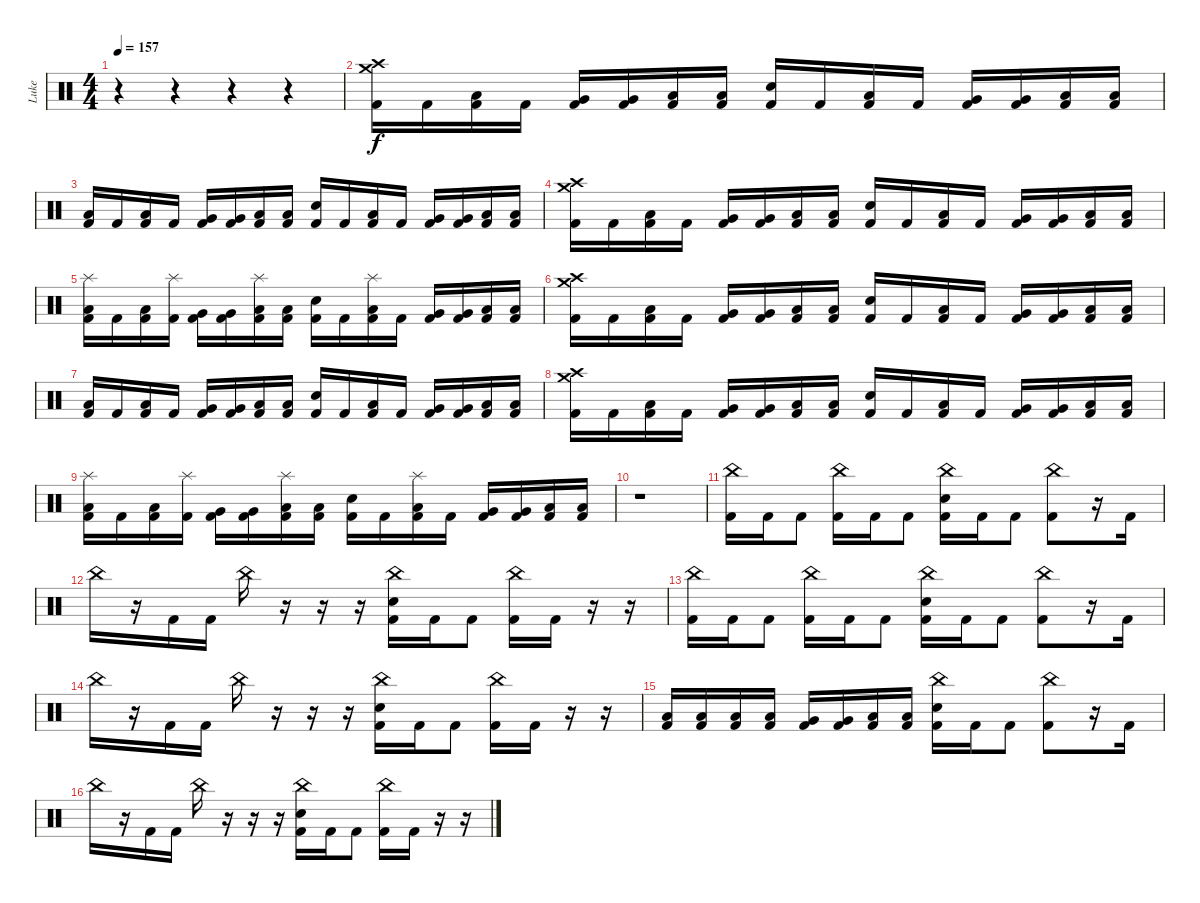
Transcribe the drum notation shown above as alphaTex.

\track ("Luke" "Luke") {instrument percussion}
\staff {score}
\articulation defaults
\ts (4 4)
\tempo 157
\clef neutral
\ks c
r.4{dy f} r.4 r.4 r.4 |
("Crash medium (hit)" "Crash high (hit)" "Kick (hit) 2").16 "Kick (hit) 2".16 ("Low Tom (hit)" "Kick (hit) 2").16 "Kick (hit) 2".16 ("Very Low Tom (hit)" "Kick (hit) 2").16 ("Very Low Tom (hit)" "Kick (hit) 2").16 ("Low Floor Tom (hit)" "Kick (hit) 2").16 ("Low Floor Tom (hit)" "Kick (hit) 2").16 ("Electric Snare (hit)" "Kick (hit) 2").16 "Kick (hit) 2".16 ("Low Tom (hit)" "Kick (hit) 2").16 "Kick (hit) 2".16 ("Very Low Tom (hit)" "Kick (hit) 2").16 ("Very Low Tom (hit)" "Kick (hit) 2").16 ("Low Floor Tom (hit)" "Kick (hit) 2").16 ("Low Floor Tom (hit)" "Kick (hit) 2").16 |
("Low Floor Tom (hit)" "Kick (hit) 2").16 "Kick (hit) 2".16 ("Low Tom (hit)" "Kick (hit) 2").16 "Kick (hit) 2".16 ("Very Low Tom (hit)" "Kick (hit) 2").16 ("Very Low Tom (hit)" "Kick (hit) 2").16 ("Low Floor Tom (hit)" "Kick (hit) 2").16 ("Low Floor Tom (hit)" "Kick (hit) 2").16 ("Electric Snare (hit)" "Kick (hit) 2").16 "Kick (hit) 2".16 ("Low Tom (hit)" "Kick (hit) 2").16 "Kick (hit) 2".16 ("Very Low Tom (hit)" "Kick (hit) 2").16 ("Very Low Tom (hit)" "Kick (hit) 2").16 ("Low Floor Tom (hit)" "Kick (hit) 2").16 ("Low Floor Tom (hit)" "Kick (hit) 2").16 |
("Crash medium (hit)" "Crash high (hit)" "Kick (hit) 2").16 "Kick (hit) 2".16 ("Low Tom (hit)" "Kick (hit) 2").16 "Kick (hit) 2".16 ("Very Low Tom (hit)" "Kick (hit) 2").16 ("Very Low Tom (hit)" "Kick (hit) 2").16 ("Low Floor Tom (hit)" "Kick (hit) 2").16 ("Low Floor Tom (hit)" "Kick (hit) 2").16 ("Electric Snare (hit)" "Kick (hit) 2").16 "Kick (hit) 2".16 ("Low Tom (hit)" "Kick (hit) 2").16 "Kick (hit) 2".16 ("Very Low Tom (hit)" "Kick (hit) 2").16 ("Very Low Tom (hit)" "Kick (hit) 2").16 ("Low Floor Tom (hit)" "Kick (hit) 2").16 ("Low Floor Tom (hit)" "Kick (hit) 2").16 |
("Splash (hit)" "Low Floor Tom (hit)" "Kick (hit) 2").16 "Kick (hit) 2".16 ("Low Tom (hit)" "Kick (hit) 2").16 ("Splash (hit)" "Kick (hit) 2").16 ("Very Low Tom (hit)" "Kick (hit) 2").16 ("Very Low Tom (hit)" "Kick (hit) 2").16 ("Splash (hit)" "Low Floor Tom (hit)" "Kick (hit) 2").16 ("Low Floor Tom (hit)" "Kick (hit) 2").16 ("Electric Snare (hit)" "Kick (hit) 2").16 "Kick (hit) 2".16 ("Splash (hit)" "Low Tom (hit)" "Kick (hit) 2").16 "Kick (hit) 2".16 ("Very Low Tom (hit)" "Kick (hit) 2").16 ("Very Low Tom (hit)" "Kick (hit) 2").16 ("Low Floor Tom (hit)" "Kick (hit) 2").16 ("Low Floor Tom (hit)" "Kick (hit) 2").16 |
("Crash medium (hit)" "Crash high (hit)" "Kick (hit) 2").16 "Kick (hit) 2".16 ("Low Tom (hit)" "Kick (hit) 2").16 "Kick (hit) 2".16 ("Very Low Tom (hit)" "Kick (hit) 2").16 ("Very Low Tom (hit)" "Kick (hit) 2").16 ("Low Floor Tom (hit)" "Kick (hit) 2").16 ("Low Floor Tom (hit)" "Kick (hit) 2").16 ("Electric Snare (hit)" "Kick (hit) 2").16 "Kick (hit) 2".16 ("Low Tom (hit)" "Kick (hit) 2").16 "Kick (hit) 2".16 ("Very Low Tom (hit)" "Kick (hit) 2").16 ("Very Low Tom (hit)" "Kick (hit) 2").16 ("Low Floor Tom (hit)" "Kick (hit) 2").16 ("Low Floor Tom (hit)" "Kick (hit) 2").16 |
("Low Floor Tom (hit)" "Kick (hit) 2").16 "Kick (hit) 2".16 ("Low Tom (hit)" "Kick (hit) 2").16 "Kick (hit) 2".16 ("Very Low Tom (hit)" "Kick (hit) 2").16 ("Very Low Tom (hit)" "Kick (hit) 2").16 ("Low Floor Tom (hit)" "Kick (hit) 2").16 ("Low Floor Tom (hit)" "Kick (hit) 2").16 ("Electric Snare (hit)" "Kick (hit) 2").16 "Kick (hit) 2".16 ("Low Tom (hit)" "Kick (hit) 2").16 "Kick (hit) 2".16 ("Very Low Tom (hit)" "Kick (hit) 2").16 ("Very Low Tom (hit)" "Kick (hit) 2").16 ("Low Floor Tom (hit)" "Kick (hit) 2").16 ("Low Floor Tom (hit)" "Kick (hit) 2").16 |
("Crash medium (hit)" "Crash high (hit)" "Kick (hit) 2").16 "Kick (hit) 2".16 ("Low Tom (hit)" "Kick (hit) 2").16 "Kick (hit) 2".16 ("Very Low Tom (hit)" "Kick (hit) 2").16 ("Very Low Tom (hit)" "Kick (hit) 2").16 ("Low Floor Tom (hit)" "Kick (hit) 2").16 ("Low Floor Tom (hit)" "Kick (hit) 2").16 ("Electric Snare (hit)" "Kick (hit) 2").16 "Kick (hit) 2".16 ("Low Tom (hit)" "Kick (hit) 2").16 "Kick (hit) 2".16 ("Very Low Tom (hit)" "Kick (hit) 2").16 ("Very Low Tom (hit)" "Kick (hit) 2").16 ("Low Floor Tom (hit)" "Kick (hit) 2").16 ("Low Floor Tom (hit)" "Kick (hit) 2").16 |
("Splash (hit)" "Low Floor Tom (hit)" "Kick (hit) 2").16 "Kick (hit) 2".16 ("Low Tom (hit)" "Kick (hit) 2").16 ("Splash (hit)" "Kick (hit) 2").16 ("Very Low Tom (hit)" "Kick (hit) 2").16 ("Very Low Tom (hit)" "Kick (hit) 2").16 ("Splash (hit)" "Low Floor Tom (hit)" "Kick (hit) 2").16 ("Low Floor Tom (hit)" "Kick (hit) 2").16 ("Electric Snare (hit)" "Kick (hit) 2").16 "Kick (hit) 2".16 ("Splash (hit)" "Low Tom (hit)" "Kick (hit) 2").16 "Kick (hit) 2".16 ("Very Low Tom (hit)" "Kick (hit) 2").16 ("Very Low Tom (hit)" "Kick (hit) 2").16 ("Low Floor Tom (hit)" "Kick (hit) 2").16 ("Low Floor Tom (hit)" "Kick (hit) 2").16 |
r.1 |
("China (hit)" "Kick (hit) 2").16 "Kick (hit) 2".16 "Kick (hit) 2".8 ("China (hit)" "Kick (hit) 2").16 "Kick (hit) 2".16 "Kick (hit) 2".8 ("China (hit)" "Electric Snare (hit)" "Kick (hit) 2").16 "Kick (hit) 2".16 "Kick (hit) 2".8 ("China (hit)" "Kick (hit) 2").8 r.16 "Kick (hit) 2".16 |
"China (hit)".16 r.16 "Kick (hit) 2".16 "Kick (hit) 2".16 "China (hit)".16 r.16 r.16 r.16 ("China (hit)" "Electric Snare (hit)" "Kick (hit) 2").16 "Kick (hit) 2".16 "Kick (hit) 2".8 ("China (hit)" "Kick (hit) 2").16 "Kick (hit) 2".16 r.16 r.16 |
("China (hit)" "Kick (hit) 2").16 "Kick (hit) 2".16 "Kick (hit) 2".8 ("China (hit)" "Kick (hit) 2").16 "Kick (hit) 2".16 "Kick (hit) 2".8 ("China (hit)" "Electric Snare (hit)" "Kick (hit) 2").16 "Kick (hit) 2".16 "Kick (hit) 2".8 ("China (hit)" "Kick (hit) 2").8 r.16 "Kick (hit) 2".16 |
"China (hit)".16 r.16 "Kick (hit) 2".16 "Kick (hit) 2".16 "China (hit)".16 r.16 r.16 r.16 ("China (hit)" "Electric Snare (hit)" "Kick (hit) 2").16 "Kick (hit) 2".16 "Kick (hit) 2".8 ("China (hit)" "Kick (hit) 2").16 "Kick (hit) 2".16 r.16 r.16 |
("Low Tom (hit)" "Kick (hit) 2").16 ("Low Tom (hit)" "Kick (hit) 2").16 ("Low Floor Tom (hit)" "Kick (hit) 2").16 ("Low Floor Tom (hit)" "Kick (hit) 2").16 ("Very Low Tom (hit)" "Kick (hit) 2").16 ("Very Low Tom (hit)" "Kick (hit) 2").16 ("Low Floor Tom (hit)" "Kick (hit) 2").16 ("Low Floor Tom (hit)" "Kick (hit) 2").16 ("China (hit)" "Electric Snare (hit)" "Kick (hit) 2").16 "Kick (hit) 2".16 "Kick (hit) 2".8 ("China (hit)" "Kick (hit) 2").8 r.16 "Kick (hit) 2".16 |
"China (hit)".16 r.16 "Kick (hit) 2".16 "Kick (hit) 2".16 "China (hit)".16 r.16 r.16 r.16 ("China (hit)" "Electric Snare (hit)" "Kick (hit) 2").16 "Kick (hit) 2".16 "Kick (hit) 2".8 ("China (hit)" "Kick (hit) 2").16 "Kick (hit) 2".16 r.16 r.16
